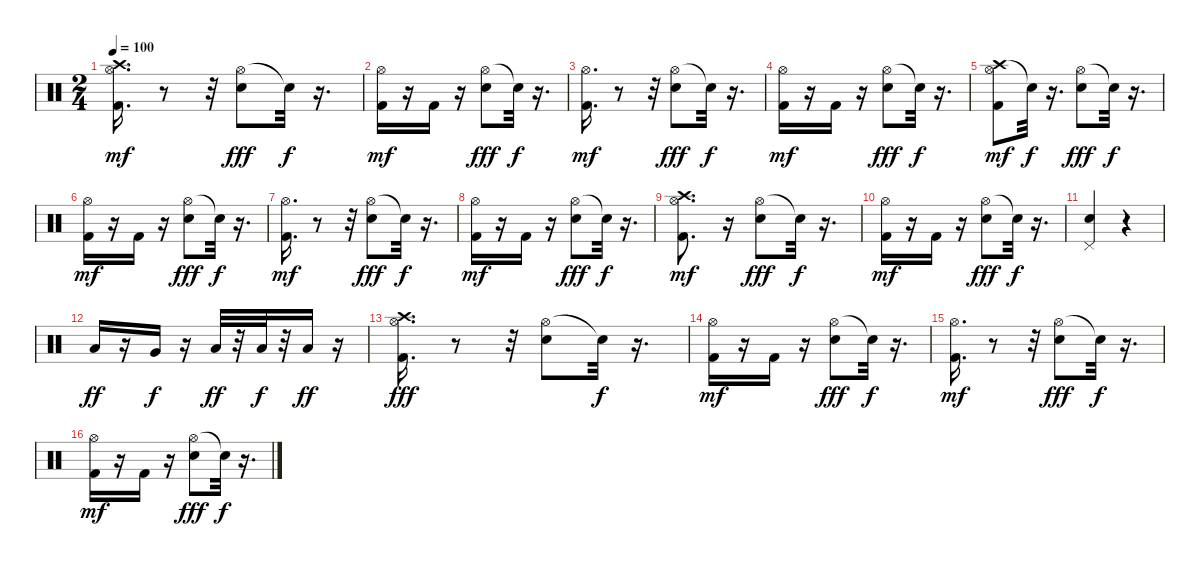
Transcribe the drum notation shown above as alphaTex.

\track "" {instrument percussion}
\staff {score}
\articulation defaults
\ts (2 4)
\tempo 100
\clef neutral
\ks c
("Crash high (hit)" "Hi-Hat (open)" "Kick (hit) 2").16{d dy mf} r.8 r.32 ("Hi-Hat (open)" "Snare (hit) 2").8{dy fff} "Snare (hit)"{t}.32{dy f} r.16{d} |
("Hi-Hat (open)" "Kick (hit) 2").16{dy mf} r.16 "Kick (hit) 2".16 r.16 ("Hi-Hat (open)" "Snare (hit) 2").8{dy fff} "Snare (hit)"{t}.32{dy f} r.16{d} |
("Hi-Hat (open)" "Kick (hit) 2").16{d dy mf} r.8 r.32 ("Hi-Hat (open)" "Snare (hit) 2").8{dy fff} "Snare (hit)"{t}.32{dy f} r.16{d} |
("Hi-Hat (open)" "Kick (hit) 2").16{dy mf} r.16 "Kick (hit) 2".16 r.16 ("Hi-Hat (open)" "Snare (hit) 2").8{dy fff} "Snare (hit)"{t}.32{dy f} r.16{d} |
("Crash high (hit)" "Hi-Hat (open)" "Kick (hit) 2").8{dy mf} "Snare (hit)"{t}.32{dy f} r.16{d} ("Hi-Hat (open)" "Snare (hit) 2").8{dy fff} "Snare (hit)"{t}.32{dy f} r.16{d} |
("Hi-Hat (open)" "Kick (hit) 2").16{dy mf} r.16 "Kick (hit) 2".16 r.16 ("Hi-Hat (open)" "Snare (hit) 2").8{dy fff} "Snare (hit)"{t}.32{dy f} r.16{d} |
("Hi-Hat (open)" "Kick (hit) 2").16{d dy mf} r.8 r.32 ("Hi-Hat (open)" "Snare (hit) 2").8{dy fff} "Snare (hit)"{t}.32{dy f} r.16{d} |
("Hi-Hat (open)" "Kick (hit) 2").16{dy mf} r.16 "Kick (hit) 2".16 r.16 ("Hi-Hat (open)" "Snare (hit) 2").8{dy fff} "Snare (hit)"{t}.32{dy f} r.16{d} |
("Crash high (hit)" "Hi-Hat (open)" "Kick (hit) 2").8{d dy mf} r.16 ("Hi-Hat (open)" "Snare (hit) 2").8{dy fff} "Snare (hit)"{t}.32{dy f} r.16{d} |
("Hi-Hat (open)" "Kick (hit) 2").16{dy mf} r.16 "Kick (hit) 2".16 r.16 ("Hi-Hat (open)" "Snare (hit) 2").8{dy fff} "Snare (hit)"{t}.32{dy f} r.16{d} |
("Pedal Hi-Hat (hit)" "Snare (hit) 2").4 r.4 |
"Low Floor Tom (hit)".16{dy ff} r.16 "Very Low Tom (hit)".16{dy f} r.16 "Low Tom (hit)".32{dy ff} r.32 "Low Tom (hit)".32{dy f} r.32 "Low Tom (hit)".16{dy ff} r.16 |
("Hi-Hat (open)" "Kick (hit) 2" "Crash high (hit)").16{d dy fff} r.8 r.32 ("Hi-Hat (open)" "Snare (hit) 2").8 "Snare (hit)"{t}.32{dy f} r.16{d} |
("Hi-Hat (open)" "Kick (hit) 2").16{dy mf} r.16 "Kick (hit) 2".16 r.16 ("Hi-Hat (open)" "Snare (hit) 2").8{dy fff} "Snare (hit)"{t}.32{dy f} r.16{d} |
("Hi-Hat (open)" "Kick (hit) 2").16{d dy mf} r.8 r.32 ("Hi-Hat (open)" "Snare (hit) 2").8{dy fff} "Snare (hit)"{t}.32{dy f} r.16{d} |
("Hi-Hat (open)" "Kick (hit) 2").16{dy mf} r.16 "Kick (hit) 2".16 r.16 ("Hi-Hat (open)" "Snare (hit) 2").8{dy fff} "Snare (hit)"{t}.32{dy f} r.16{d}
